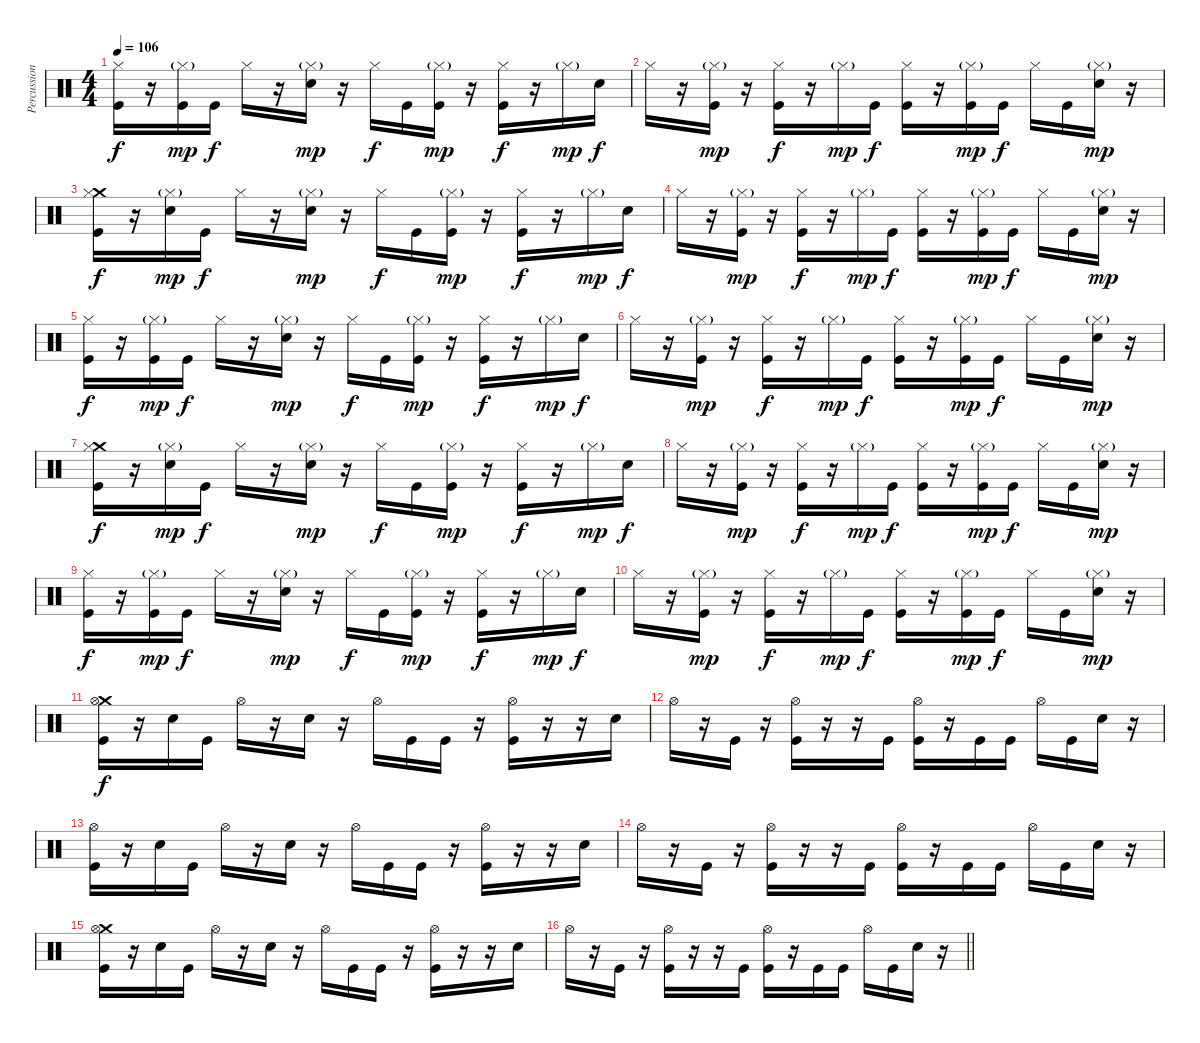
\track ("Percussion" "Percussion") {instrument percussion}
\staff {score}
\articulation defaults
\ts (4 4)
\tempo 106
\clef neutral
\ks c
("Hi-Hat (closed)" "Kick (hit)").16{dy f} r.16 ("Hi-Hat (closed)"{g} "Kick (hit)").16{dy mp} "Kick (hit)".16{dy f} "Hi-Hat (closed)".16 r.16 ("Hi-Hat (closed)"{g} "Snare (hit) 2").16{dy mp} r.16 "Hi-Hat (closed)".16{dy f} "Kick (hit)".16 ("Hi-Hat (closed)"{g} "Kick (hit)").16{dy mp} r.16 ("Hi-Hat (closed)" "Kick (hit)").16{dy f} r.16 "Hi-Hat (closed)"{g}.16{dy mp} "Snare (hit) 2".16{dy f} |
"Hi-Hat (closed)".16 r.16 ("Hi-Hat (closed)"{g} "Kick (hit)").16{dy mp} r.16 ("Hi-Hat (closed)" "Kick (hit)").16{dy f} r.16 "Hi-Hat (closed)"{g}.16{dy mp} "Kick (hit)".16{dy f} ("Hi-Hat (closed)" "Kick (hit)").16 r.16 ("Hi-Hat (closed)"{g} "Kick (hit)").16{dy mp} "Kick (hit)".16{dy f} "Hi-Hat (closed)".16 "Kick (hit)".16 ("Hi-Hat (closed)"{g} "Snare (hit) 2").16{dy mp} r.16 |
("Crash medium (hit)" "Hi-Hat (closed)" "Kick (hit)").16{dy f} r.16 ("Hi-Hat (closed)"{g} "Snare (hit) 2").16{dy mp} "Kick (hit)".16{dy f} "Hi-Hat (closed)".16 r.16 ("Hi-Hat (closed)"{g} "Snare (hit) 2").16{dy mp} r.16 "Hi-Hat (closed)".16{dy f} "Kick (hit)".16 ("Hi-Hat (closed)"{g} "Kick (hit)").16{dy mp} r.16 ("Hi-Hat (closed)" "Kick (hit)").16{dy f} r.16 "Hi-Hat (closed)"{g}.16{dy mp} "Snare (hit) 2".16{dy f} |
"Hi-Hat (closed)".16 r.16 ("Hi-Hat (closed)"{g} "Kick (hit)").16{dy mp} r.16 ("Hi-Hat (closed)" "Kick (hit)").16{dy f} r.16 "Hi-Hat (closed)"{g}.16{dy mp} "Kick (hit)".16{dy f} ("Hi-Hat (closed)" "Kick (hit)").16 r.16 ("Hi-Hat (closed)"{g} "Kick (hit)").16{dy mp} "Kick (hit)".16{dy f} "Hi-Hat (closed)".16 "Kick (hit)".16 ("Hi-Hat (closed)"{g} "Snare (hit) 2").16{dy mp} r.16 |
("Hi-Hat (closed)" "Kick (hit)").16{dy f} r.16 ("Hi-Hat (closed)"{g} "Kick (hit)").16{dy mp} "Kick (hit)".16{dy f} "Hi-Hat (closed)".16 r.16 ("Hi-Hat (closed)"{g} "Snare (hit) 2").16{dy mp} r.16 "Hi-Hat (closed)".16{dy f} "Kick (hit)".16 ("Hi-Hat (closed)"{g} "Kick (hit)").16{dy mp} r.16 ("Hi-Hat (closed)" "Kick (hit)").16{dy f} r.16 "Hi-Hat (closed)"{g}.16{dy mp} "Snare (hit) 2".16{dy f} |
"Hi-Hat (closed)".16 r.16 ("Hi-Hat (closed)"{g} "Kick (hit)").16{dy mp} r.16 ("Hi-Hat (closed)" "Kick (hit)").16{dy f} r.16 "Hi-Hat (closed)"{g}.16{dy mp} "Kick (hit)".16{dy f} ("Hi-Hat (closed)" "Kick (hit)").16 r.16 ("Hi-Hat (closed)"{g} "Kick (hit)").16{dy mp} "Kick (hit)".16{dy f} "Hi-Hat (closed)".16 "Kick (hit)".16 ("Hi-Hat (closed)"{g} "Snare (hit) 2").16{dy mp} r.16 |
("Crash medium (hit)" "Hi-Hat (closed)" "Kick (hit)").16{dy f} r.16 ("Hi-Hat (closed)"{g} "Snare (hit) 2").16{dy mp} "Kick (hit)".16{dy f} "Hi-Hat (closed)".16 r.16 ("Hi-Hat (closed)"{g} "Snare (hit) 2").16{dy mp} r.16 "Hi-Hat (closed)".16{dy f} "Kick (hit)".16 ("Hi-Hat (closed)"{g} "Kick (hit)").16{dy mp} r.16 ("Hi-Hat (closed)" "Kick (hit)").16{dy f} r.16 "Hi-Hat (closed)"{g}.16{dy mp} "Snare (hit) 2".16{dy f} |
"Hi-Hat (closed)".16 r.16 ("Hi-Hat (closed)"{g} "Kick (hit)").16{dy mp} r.16 ("Hi-Hat (closed)" "Kick (hit)").16{dy f} r.16 "Hi-Hat (closed)"{g}.16{dy mp} "Kick (hit)".16{dy f} ("Hi-Hat (closed)" "Kick (hit)").16 r.16 ("Hi-Hat (closed)"{g} "Kick (hit)").16{dy mp} "Kick (hit)".16{dy f} "Hi-Hat (closed)".16 "Kick (hit)".16 ("Hi-Hat (closed)"{g} "Snare (hit) 2").16{dy mp} r.16 |
("Hi-Hat (closed)" "Kick (hit)").16{dy f} r.16 ("Hi-Hat (closed)"{g} "Kick (hit)").16{dy mp} "Kick (hit)".16{dy f} "Hi-Hat (closed)".16 r.16 ("Hi-Hat (closed)"{g} "Snare (hit) 2").16{dy mp} r.16 "Hi-Hat (closed)".16{dy f} "Kick (hit)".16 ("Hi-Hat (closed)"{g} "Kick (hit)").16{dy mp} r.16 ("Hi-Hat (closed)" "Kick (hit)").16{dy f} r.16 "Hi-Hat (closed)"{g}.16{dy mp} "Snare (hit) 2".16{dy f} |
"Hi-Hat (closed)".16 r.16 ("Hi-Hat (closed)"{g} "Kick (hit)").16{dy mp} r.16 ("Hi-Hat (closed)" "Kick (hit)").16{dy f} r.16 "Hi-Hat (closed)"{g}.16{dy mp} "Kick (hit)".16{dy f} ("Hi-Hat (closed)" "Kick (hit)").16 r.16 ("Hi-Hat (closed)"{g} "Kick (hit)").16{dy mp} "Kick (hit)".16{dy f} "Hi-Hat (closed)".16 "Kick (hit)".16 ("Hi-Hat (closed)"{g} "Snare (hit) 2").16{dy mp} r.16 |
("Crash medium (hit)" "Hi-Hat (open)" "Kick (hit)").16{dy f} r.16 "Snare (hit) 2".16 "Kick (hit)".16 "Hi-Hat (open)".16 r.16 "Snare (hit) 2".16 r.16 "Hi-Hat (open)".16 "Kick (hit)".16 "Kick (hit)".16 r.16 ("Hi-Hat (open)" "Kick (hit)").16 r.16 r.16 "Snare (hit) 2".16 |
"Hi-Hat (open)".16 r.16 "Kick (hit)".16 r.16 ("Hi-Hat (open)" "Kick (hit)").16 r.16 r.16 "Kick (hit)".16 ("Hi-Hat (open)" "Kick (hit)").16 r.16 "Kick (hit)".16 "Kick (hit)".16 "Hi-Hat (open)".16 "Kick (hit)".16 "Snare (hit) 2".16 r.16 |
("Hi-Hat (open)" "Kick (hit)").16 r.16 "Snare (hit) 2".16 "Kick (hit)".16 "Hi-Hat (open)".16 r.16 "Snare (hit) 2".16 r.16 "Hi-Hat (open)".16 "Kick (hit)".16 "Kick (hit)".16 r.16 ("Hi-Hat (open)" "Kick (hit)").16 r.16 r.16 "Snare (hit) 2".16 |
"Hi-Hat (open)".16 r.16 "Kick (hit)".16 r.16 ("Hi-Hat (open)" "Kick (hit)").16 r.16 r.16 "Kick (hit)".16 ("Hi-Hat (open)" "Kick (hit)").16 r.16 "Kick (hit)".16 "Kick (hit)".16 "Hi-Hat (open)".16 "Kick (hit)".16 "Snare (hit) 2".16 r.16 |
("Crash medium (hit)" "Hi-Hat (open)" "Kick (hit)").16 r.16 "Snare (hit) 2".16 "Kick (hit)".16 "Hi-Hat (open)".16 r.16 "Snare (hit) 2".16 r.16 "Hi-Hat (open)".16 "Kick (hit)".16 "Kick (hit)".16 r.16 ("Hi-Hat (open)" "Kick (hit)").16 r.16 r.16 "Snare (hit) 2".16 |
\barLineRight lightlight "Hi-Hat (open)".16
r.16 "Kick (hit)".16 r.16 ("Hi-Hat (open)" "Kick (hit)").16 r.16 r.16 "Kick (hit)".16 ("Hi-Hat (open)" "Kick (hit)").16 r.16 "Kick (hit)".16 "Kick (hit)".16 "Hi-Hat (open)".16 "Kick (hit)".16 "Snare (hit) 2".16 r.16
